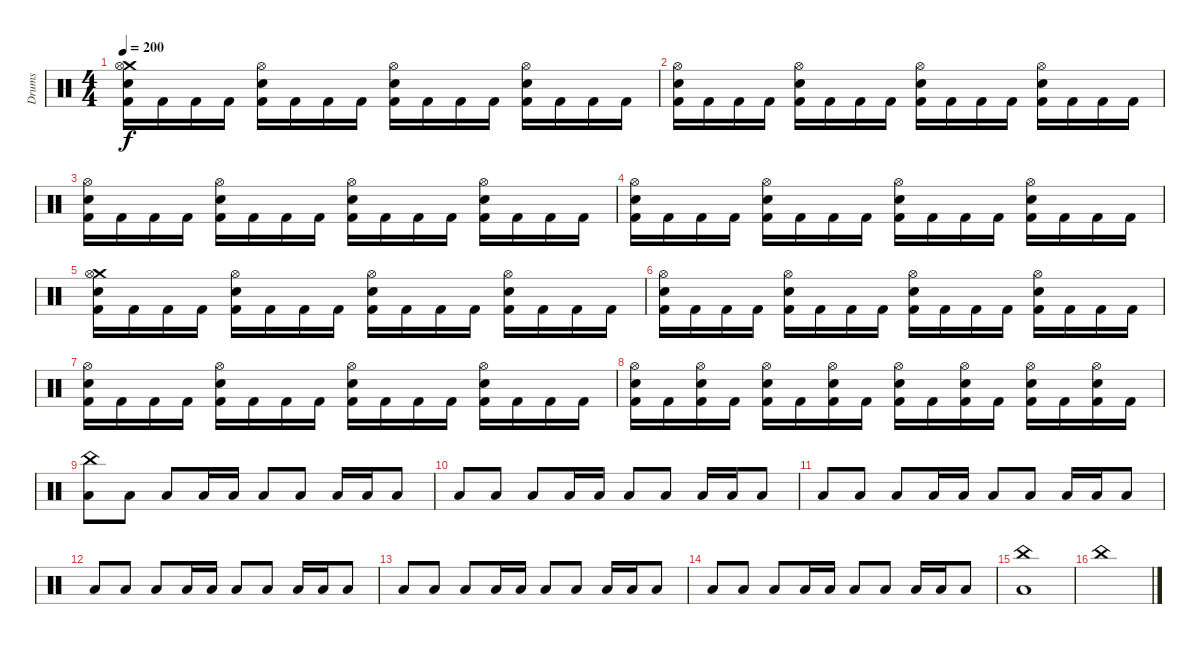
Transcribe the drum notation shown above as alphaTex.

\track ("Drums" "Drums") {instrument percussion}
\staff {score}
\articulation defaults
\ts (4 4)
\tempo 200
\clef neutral
\ks c
("Crash medium (hit)" "Hi-Hat (open)" "Electric Snare (hit)" "Kick (hit) 2").16{dy f} "Kick (hit) 2".16 "Kick (hit) 2".16 "Kick (hit) 2".16 ("Hi-Hat (open)" "Electric Snare (hit)" "Kick (hit) 2").16 "Kick (hit) 2".16 "Kick (hit) 2".16 "Kick (hit) 2".16 ("Hi-Hat (open)" "Electric Snare (hit)" "Kick (hit) 2").16 "Kick (hit) 2".16 "Kick (hit) 2".16 "Kick (hit) 2".16 ("Hi-Hat (open)" "Electric Snare (hit)" "Kick (hit) 2").16 "Kick (hit) 2".16 "Kick (hit) 2".16 "Kick (hit) 2".16 |
("Hi-Hat (open)" "Electric Snare (hit)" "Kick (hit) 2").16 "Kick (hit) 2".16 "Kick (hit) 2".16 "Kick (hit) 2".16 ("Hi-Hat (open)" "Electric Snare (hit)" "Kick (hit) 2").16 "Kick (hit) 2".16 "Kick (hit) 2".16 "Kick (hit) 2".16 ("Hi-Hat (open)" "Electric Snare (hit)" "Kick (hit) 2").16 "Kick (hit) 2".16 "Kick (hit) 2".16 "Kick (hit) 2".16 ("Hi-Hat (open)" "Electric Snare (hit)" "Kick (hit) 2").16 "Kick (hit) 2".16 "Kick (hit) 2".16 "Kick (hit) 2".16 |
("Hi-Hat (open)" "Electric Snare (hit)" "Kick (hit) 2").16 "Kick (hit) 2".16 "Kick (hit) 2".16 "Kick (hit) 2".16 ("Hi-Hat (open)" "Electric Snare (hit)" "Kick (hit) 2").16 "Kick (hit) 2".16 "Kick (hit) 2".16 "Kick (hit) 2".16 ("Hi-Hat (open)" "Electric Snare (hit)" "Kick (hit) 2").16 "Kick (hit) 2".16 "Kick (hit) 2".16 "Kick (hit) 2".16 ("Hi-Hat (open)" "Electric Snare (hit)" "Kick (hit) 2").16 "Kick (hit) 2".16 "Kick (hit) 2".16 "Kick (hit) 2".16 |
("Hi-Hat (open)" "Electric Snare (hit)" "Kick (hit) 2").16 "Kick (hit) 2".16 "Kick (hit) 2".16 "Kick (hit) 2".16 ("Hi-Hat (open)" "Electric Snare (hit)" "Kick (hit) 2").16 "Kick (hit) 2".16 "Kick (hit) 2".16 "Kick (hit) 2".16 ("Hi-Hat (open)" "Electric Snare (hit)" "Kick (hit) 2").16 "Kick (hit) 2".16 "Kick (hit) 2".16 "Kick (hit) 2".16 ("Hi-Hat (open)" "Electric Snare (hit)" "Kick (hit) 2").16 "Kick (hit) 2".16 "Kick (hit) 2".16 "Kick (hit) 2".16 |
("Crash medium (hit)" "Hi-Hat (open)" "Electric Snare (hit)" "Kick (hit) 2").16 "Kick (hit) 2".16 "Kick (hit) 2".16 "Kick (hit) 2".16 ("Hi-Hat (open)" "Electric Snare (hit)" "Kick (hit) 2").16 "Kick (hit) 2".16 "Kick (hit) 2".16 "Kick (hit) 2".16 ("Hi-Hat (open)" "Electric Snare (hit)" "Kick (hit) 2").16 "Kick (hit) 2".16 "Kick (hit) 2".16 "Kick (hit) 2".16 ("Hi-Hat (open)" "Electric Snare (hit)" "Kick (hit) 2").16 "Kick (hit) 2".16 "Kick (hit) 2".16 "Kick (hit) 2".16 |
("Hi-Hat (open)" "Electric Snare (hit)" "Kick (hit) 2").16 "Kick (hit) 2".16 "Kick (hit) 2".16 "Kick (hit) 2".16 ("Hi-Hat (open)" "Electric Snare (hit)" "Kick (hit) 2").16 "Kick (hit) 2".16 "Kick (hit) 2".16 "Kick (hit) 2".16 ("Hi-Hat (open)" "Electric Snare (hit)" "Kick (hit) 2").16 "Kick (hit) 2".16 "Kick (hit) 2".16 "Kick (hit) 2".16 ("Hi-Hat (open)" "Electric Snare (hit)" "Kick (hit) 2").16 "Kick (hit) 2".16 "Kick (hit) 2".16 "Kick (hit) 2".16 |
("Hi-Hat (open)" "Electric Snare (hit)" "Kick (hit) 2").16 "Kick (hit) 2".16 "Kick (hit) 2".16 "Kick (hit) 2".16 ("Hi-Hat (open)" "Electric Snare (hit)" "Kick (hit) 2").16 "Kick (hit) 2".16 "Kick (hit) 2".16 "Kick (hit) 2".16 ("Hi-Hat (open)" "Electric Snare (hit)" "Kick (hit) 2").16 "Kick (hit) 2".16 "Kick (hit) 2".16 "Kick (hit) 2".16 ("Hi-Hat (open)" "Electric Snare (hit)" "Kick (hit) 2").16 "Kick (hit) 2".16 "Kick (hit) 2".16 "Kick (hit) 2".16 |
("Hi-Hat (open)" "Electric Snare (hit)" "Kick (hit) 2").16 "Kick (hit) 2".16 ("Hi-Hat (open)" "Electric Snare (hit)" "Kick (hit) 2").16 "Kick (hit) 2".16 ("Hi-Hat (open)" "Electric Snare (hit)" "Kick (hit) 2").16 "Kick (hit) 2".16 ("Hi-Hat (open)" "Electric Snare (hit)" "Kick (hit) 2").16 "Kick (hit) 2".16 ("Hi-Hat (open)" "Electric Snare (hit)" "Kick (hit) 2").16 "Kick (hit) 2".16 ("Hi-Hat (open)" "Electric Snare (hit)" "Kick (hit) 2").16 "Kick (hit) 2".16 ("Hi-Hat (open)" "Electric Snare (hit)" "Kick (hit) 2").16 "Kick (hit) 2".16 ("Hi-Hat (open)" "Electric Snare (hit)" "Kick (hit) 2").16 "Kick (hit) 2".16 |
("China (hit)" "Low Tom (hit)").8 "Low Tom (hit)".8 "Low Tom (hit)".8 "Low Tom (hit)".16 "Low Tom (hit)".16 "Low Tom (hit)".8 "Low Tom (hit)".8 "Low Tom (hit)".16 "Low Tom (hit)".16 "Low Tom (hit)".8 |
"Low Tom (hit)".8 "Low Tom (hit)".8 "Low Tom (hit)".8 "Low Tom (hit)".16 "Low Tom (hit)".16 "Low Tom (hit)".8 "Low Tom (hit)".8 "Low Tom (hit)".16 "Low Tom (hit)".16 "Low Tom (hit)".8 |
"Low Tom (hit)".8 "Low Tom (hit)".8 "Low Tom (hit)".8 "Low Tom (hit)".16 "Low Tom (hit)".16 "Low Tom (hit)".8 "Low Tom (hit)".8 "Low Tom (hit)".16 "Low Tom (hit)".16 "Low Tom (hit)".8 |
"Low Tom (hit)".8 "Low Tom (hit)".8 "Low Tom (hit)".8 "Low Tom (hit)".16 "Low Tom (hit)".16 "Low Tom (hit)".8 "Low Tom (hit)".8 "Low Tom (hit)".16 "Low Tom (hit)".16 "Low Tom (hit)".8 |
"Low Tom (hit)".8 "Low Tom (hit)".8 "Low Tom (hit)".8 "Low Tom (hit)".16 "Low Tom (hit)".16 "Low Tom (hit)".8 "Low Tom (hit)".8 "Low Tom (hit)".16 "Low Tom (hit)".16 "Low Tom (hit)".8 |
"Low Tom (hit)".8 "Low Tom (hit)".8 "Low Tom (hit)".8 "Low Tom (hit)".16 "Low Tom (hit)".16 "Low Tom (hit)".8 "Low Tom (hit)".8 "Low Tom (hit)".16 "Low Tom (hit)".16 "Low Tom (hit)".8 |
("China (hit)" "Low Tom (hit)").1 |
"China (hit)".1
